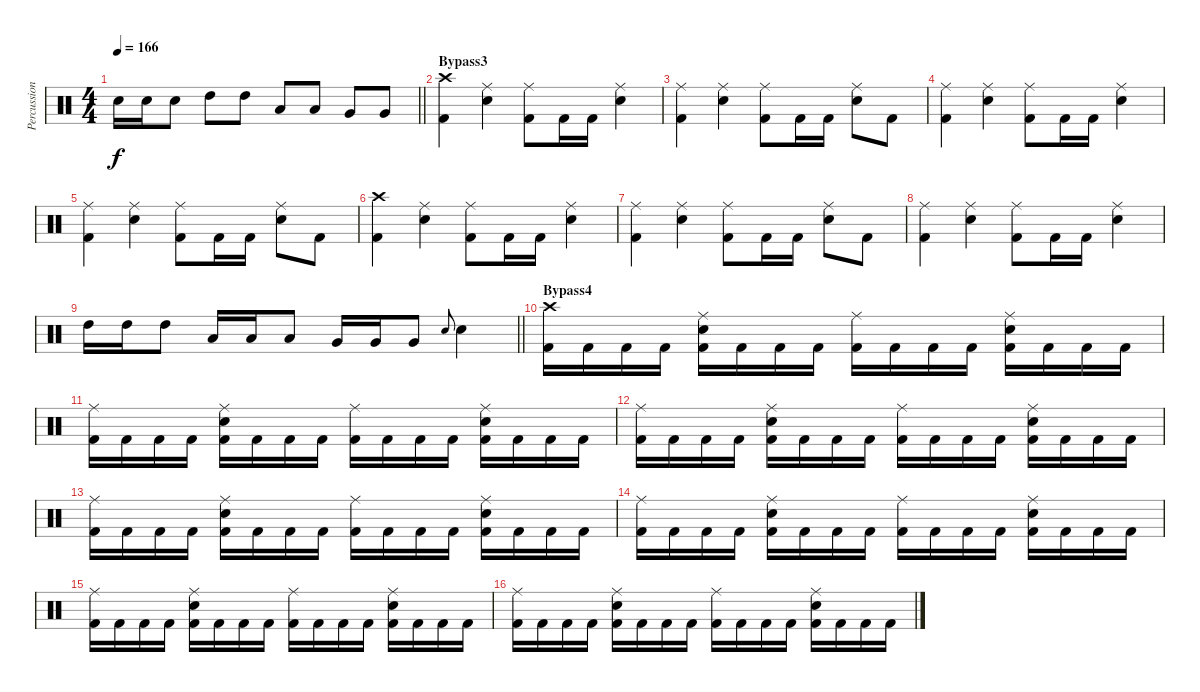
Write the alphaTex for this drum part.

\track ("Percussion" "Percussion") {solo instrument percussion}
\staff {score}
\articulation defaults
\ts (4 4)
\tempo 166
\clef neutral
\barLineRight lightlight
\ks c "Snare (hit) 2".16{dy f} "Snare (hit) 2".16 "Snare (hit) 2".8 "High Tom (hit)".8 "High Tom (hit)".8 "Low Tom (hit)".8 "Low Tom (hit)".8 "Very Low Tom (hit)".8 "Very Low Tom (hit)".8
|
\section ("" "Bypass3")
("Crash high (hit)" "Kick (hit) 2").4 ("Snare (hit) 2" "Ride (middle)").4 ("Ride (middle)" "Kick (hit) 2").8 "Kick (hit) 2".16 "Kick (hit) 2".16 ("Snare (hit) 2" "Ride (middle)").4 |
("Ride (middle)" "Kick (hit) 2").4 ("Snare (hit) 2" "Ride (middle)").4 ("Ride (middle)" "Kick (hit) 2").8 "Kick (hit) 2".16 "Kick (hit) 2".16 ("Ride (middle)" "Snare (hit) 2").8 "Kick (hit) 2".8 |
("Ride (middle)" "Kick (hit) 2").4 ("Snare (hit) 2" "Ride (middle)").4 ("Ride (middle)" "Kick (hit) 2").8 "Kick (hit) 2".16 "Kick (hit) 2".16 ("Ride (middle)" "Snare (hit) 2").4 |
("Ride (middle)" "Kick (hit) 2").4 ("Snare (hit) 2" "Ride (middle)").4 ("Ride (middle)" "Kick (hit) 2").8 "Kick (hit) 2".16 "Kick (hit) 2".16 ("Ride (middle)" "Snare (hit) 2").8 "Kick (hit) 2".8 |
("Crash high (hit)" "Kick (hit) 2").4 ("Snare (hit) 2" "Ride (middle)").4 ("Ride (middle)" "Kick (hit) 2").8 "Kick (hit) 2".16 "Kick (hit) 2".16 ("Snare (hit) 2" "Ride (middle)").4 |
("Ride (middle)" "Kick (hit) 2").4 ("Snare (hit) 2" "Ride (middle)").4 ("Ride (middle)" "Kick (hit) 2").8 "Kick (hit) 2".16 "Kick (hit) 2".16 ("Ride (middle)" "Snare (hit) 2").8 "Kick (hit) 2".8 |
("Ride (middle)" "Kick (hit) 2").4 ("Snare (hit) 2" "Ride (middle)").4 ("Ride (middle)" "Kick (hit) 2").8 "Kick (hit) 2".16 "Kick (hit) 2".16 ("Ride (middle)" "Snare (hit) 2").4 |
\barLineRight lightlight "High Tom (hit)".16 "High Tom (hit)".16 "High Tom (hit)".8 "Low Tom (hit)".16 "Low Tom (hit)".16 "Low Tom (hit)".8 "Very Low Tom (hit)".16 "Very Low Tom (hit)".16 "Very Low Tom (hit)".8 "Snare (hit) 2".8{gr onbeat} "Snare (hit) 2".4
|
\section ("" "Bypass4")
("Crash high (hit)" "Kick (hit) 2").16 "Kick (hit) 2".16 "Kick (hit) 2".16 "Kick (hit) 2".16 ("Ride (middle)" "Snare (hit) 2" "Kick (hit) 2").16 "Kick (hit) 2".16 "Kick (hit) 2".16 "Kick (hit) 2".16 ("Ride (middle)" "Kick (hit) 2").16 "Kick (hit) 2".16 "Kick (hit) 2".16 "Kick (hit) 2".16 ("Ride (middle)" "Snare (hit) 2" "Kick (hit) 2").16 "Kick (hit) 2".16 "Kick (hit) 2".16 "Kick (hit) 2".16 |
("Ride (middle)" "Kick (hit) 2").16 "Kick (hit) 2".16 "Kick (hit) 2".16 "Kick (hit) 2".16 ("Ride (middle)" "Snare (hit) 2" "Kick (hit) 2").16 "Kick (hit) 2".16 "Kick (hit) 2".16 "Kick (hit) 2".16 ("Ride (middle)" "Kick (hit) 2").16 "Kick (hit) 2".16 "Kick (hit) 2".16 "Kick (hit) 2".16 ("Ride (middle)" "Snare (hit) 2" "Kick (hit) 2").16 "Kick (hit) 2".16 "Kick (hit) 2".16 "Kick (hit) 2".16 |
("Ride (middle)" "Kick (hit) 2").16 "Kick (hit) 2".16 "Kick (hit) 2".16 "Kick (hit) 2".16 ("Ride (middle)" "Snare (hit) 2" "Kick (hit) 2").16 "Kick (hit) 2".16 "Kick (hit) 2".16 "Kick (hit) 2".16 ("Ride (middle)" "Kick (hit) 2").16 "Kick (hit) 2".16 "Kick (hit) 2".16 "Kick (hit) 2".16 ("Ride (middle)" "Snare (hit) 2" "Kick (hit) 2").16 "Kick (hit) 2".16 "Kick (hit) 2".16 "Kick (hit) 2".16 |
("Ride (middle)" "Kick (hit) 2").16 "Kick (hit) 2".16 "Kick (hit) 2".16 "Kick (hit) 2".16 ("Ride (middle)" "Snare (hit) 2" "Kick (hit) 2").16 "Kick (hit) 2".16 "Kick (hit) 2".16 "Kick (hit) 2".16 ("Ride (middle)" "Kick (hit) 2").16 "Kick (hit) 2".16 "Kick (hit) 2".16 "Kick (hit) 2".16 ("Ride (middle)" "Snare (hit) 2" "Kick (hit) 2").16 "Kick (hit) 2".16 "Kick (hit) 2".16 "Kick (hit) 2".16 |
("Ride (middle)" "Kick (hit) 2").16 "Kick (hit) 2".16 "Kick (hit) 2".16 "Kick (hit) 2".16 ("Ride (middle)" "Snare (hit) 2" "Kick (hit) 2").16 "Kick (hit) 2".16 "Kick (hit) 2".16 "Kick (hit) 2".16 ("Ride (middle)" "Kick (hit) 2").16 "Kick (hit) 2".16 "Kick (hit) 2".16 "Kick (hit) 2".16 ("Ride (middle)" "Snare (hit) 2" "Kick (hit) 2").16 "Kick (hit) 2".16 "Kick (hit) 2".16 "Kick (hit) 2".16 |
("Ride (middle)" "Kick (hit) 2").16 "Kick (hit) 2".16 "Kick (hit) 2".16 "Kick (hit) 2".16 ("Ride (middle)" "Snare (hit) 2" "Kick (hit) 2").16 "Kick (hit) 2".16 "Kick (hit) 2".16 "Kick (hit) 2".16 ("Ride (middle)" "Kick (hit) 2").16 "Kick (hit) 2".16 "Kick (hit) 2".16 "Kick (hit) 2".16 ("Ride (middle)" "Snare (hit) 2" "Kick (hit) 2").16 "Kick (hit) 2".16 "Kick (hit) 2".16 "Kick (hit) 2".16 |
("Ride (middle)" "Kick (hit) 2").16 "Kick (hit) 2".16 "Kick (hit) 2".16 "Kick (hit) 2".16 ("Ride (middle)" "Snare (hit) 2" "Kick (hit) 2").16 "Kick (hit) 2".16 "Kick (hit) 2".16 "Kick (hit) 2".16 ("Ride (middle)" "Kick (hit) 2").16 "Kick (hit) 2".16 "Kick (hit) 2".16 "Kick (hit) 2".16 ("Ride (middle)" "Snare (hit) 2" "Kick (hit) 2").16 "Kick (hit) 2".16 "Kick (hit) 2".16 "Kick (hit) 2".16
